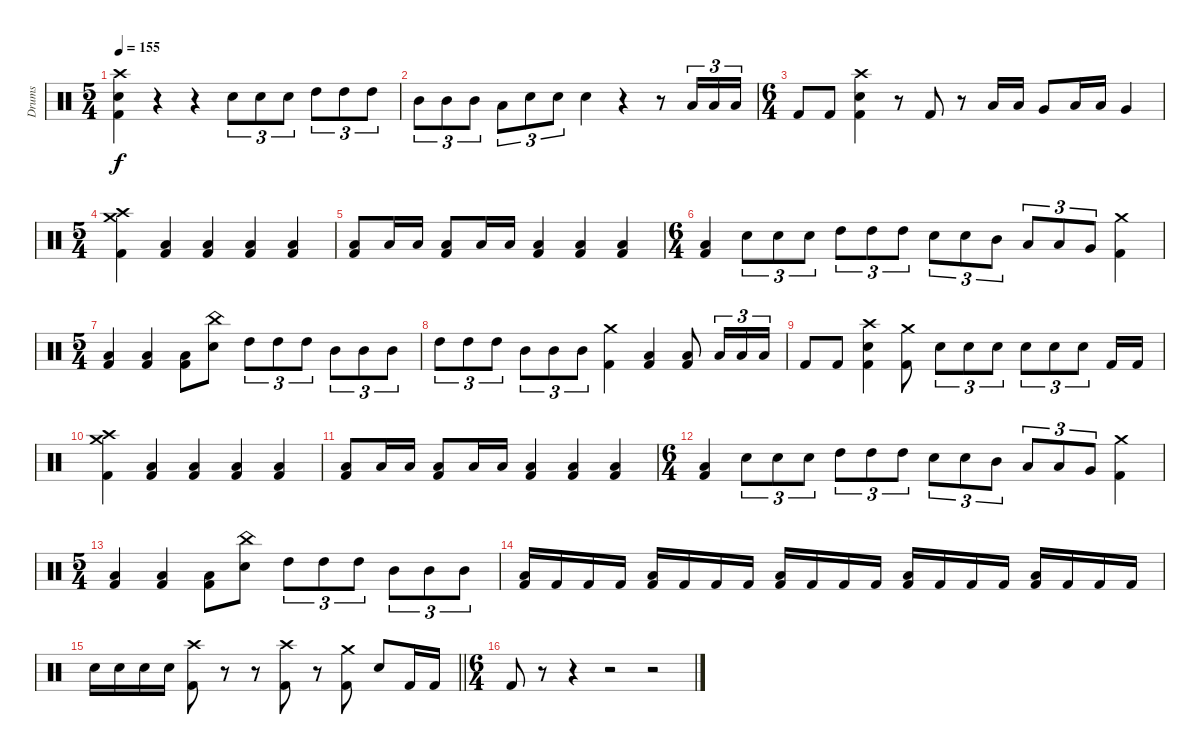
\track ("Drums" "Drums") {instrument percussion}
\staff {score}
\articulation defaults
\ts (5 4)
\tempo 155
\clef neutral
\ks c
("Crash high (hit)" "Electric Snare (hit)" "Kick (hit) 2").4{dy f} r.4 r.4 "Electric Snare (hit)".8{tu (3 2)} "Electric Snare (hit)".8{tu (3 2)} "Electric Snare (hit)".8{tu (3 2)} "High Tom (hit)".8{tu (3 2)} "High Tom (hit)".8{tu (3 2)} "High Tom (hit)".8{tu (3 2)} |
"Mid Tom (hit)".8{tu (3 2)} "Mid Tom (hit)".8{tu (3 2)} "Mid Tom (hit)".8{tu (3 2)} "Low Tom (hit)".8{tu (3 2)} "Electric Snare (hit)".8{tu (3 2)} "Electric Snare (hit)".8{tu (3 2)} "Electric Snare (hit)".4 r.4 r.8 "Low Tom (hit)".16{tu (3 2)} "Low Tom (hit)".16{tu (3 2)} "Low Tom (hit)".16{tu (3 2)} |
\ts (6 4)
"Kick (hit) 2".8 "Kick (hit) 2".8 ("Crash high (hit)" "Electric Snare (hit)" "Kick (hit) 2").4 r.8 "Kick (hit) 2".8 r.8 "Low Tom (hit)".16 "Low Tom (hit)".16 "Very Low Tom (hit)".8 "Low Tom (hit)".16 "Low Tom (hit)".16 "Very Low Tom (hit)".4 |
\ts (5 4)
("Crash high (hit)" "Crash medium (hit)" "Kick (hit) 2").4 ("Low Tom (hit)" "Kick (hit) 2").4 ("Low Tom (hit)" "Kick (hit) 2").4 ("Low Tom (hit)" "Kick (hit) 2").4 ("Low Tom (hit)" "Kick (hit) 2").4 |
("Low Tom (hit)" "Kick (hit) 2").8 "Low Tom (hit)".16 "Low Tom (hit)".16 ("Low Tom (hit)" "Kick (hit) 2").8 "Low Tom (hit)".16 "Low Tom (hit)".16 ("Low Tom (hit)" "Kick (hit) 2").4 ("Low Tom (hit)" "Kick (hit) 2").4 ("Low Tom (hit)" "Kick (hit) 2").4 |
\ts (6 4)
("Low Tom (hit)" "Kick (hit) 2").4 "Electric Snare (hit)".8{tu (3 2)} "Electric Snare (hit)".8{tu (3 2)} "Electric Snare (hit)".8{tu (3 2)} "High Tom (hit)".8{tu (3 2)} "High Tom (hit)".8{tu (3 2)} "High Tom (hit)".8{tu (3 2)} "Electric Snare (hit)".8{tu (3 2)} "Electric Snare (hit)".8{tu (3 2)} "Mid Tom (hit)".8{tu (3 2)} "Low Tom (hit)".8{tu (3 2)} "Low Tom (hit)".8{tu (3 2)} "Very Low Tom (hit)".8{tu (3 2)} ("Crash medium (hit)" "Kick (hit) 2").4 |
\ts (5 4)
("Low Tom (hit)" "Kick (hit) 2").4 ("Low Tom (hit)" "Kick (hit) 2").4 ("Low Tom (hit)" "Kick (hit) 2").8 ("China (hit)" "Electric Snare (hit)").8 "High Tom (hit)".8{tu (3 2)} "High Tom (hit)".8{tu (3 2)} "High Tom (hit)".8{tu (3 2)} "Mid Tom (hit)".8{tu (3 2)} "Mid Tom (hit)".8{tu (3 2)} "Mid Tom (hit)".8{tu (3 2)} |
"High Tom (hit)".8{tu (3 2)} "High Tom (hit)".8{tu (3 2)} "High Tom (hit)".8{tu (3 2)} "Mid Tom (hit)".8{tu (3 2)} "Mid Tom (hit)".8{tu (3 2)} "Mid Tom (hit)".8{tu (3 2)} ("Crash medium (hit)" "Kick (hit) 2").4 ("Low Tom (hit)" "Kick (hit) 2").4 ("Low Tom (hit)" "Kick (hit) 2").8 "Low Tom (hit)".16{tu (3 2)} "Low Tom (hit)".16{tu (3 2)} "Low Tom (hit)".16{tu (3 2)} |
"Kick (hit) 2".8 "Kick (hit) 2".8 ("Crash high (hit)" "Electric Snare (hit)" "Kick (hit) 2").4 ("Crash medium (hit)" "Kick (hit) 2").8 "Electric Snare (hit)".8{tu (3 2)} "Electric Snare (hit)".8{tu (3 2)} "Electric Snare (hit)".8{tu (3 2)} "Electric Snare (hit)".8{tu (3 2)} "Electric Snare (hit)".8{tu (3 2)} "Electric Snare (hit)".8{tu (3 2)} "Kick (hit) 2".16 "Kick (hit) 2".16 |
("Crash high (hit)" "Crash medium (hit)" "Kick (hit) 2").4 ("Low Tom (hit)" "Kick (hit) 2").4 ("Low Tom (hit)" "Kick (hit) 2").4 ("Low Tom (hit)" "Kick (hit) 2").4 ("Low Tom (hit)" "Kick (hit) 2").4 |
("Low Tom (hit)" "Kick (hit) 2").8 "Low Tom (hit)".16 "Low Tom (hit)".16 ("Low Tom (hit)" "Kick (hit) 2").8 "Low Tom (hit)".16 "Low Tom (hit)".16 ("Low Tom (hit)" "Kick (hit) 2").4 ("Low Tom (hit)" "Kick (hit) 2").4 ("Low Tom (hit)" "Kick (hit) 2").4 |
\ts (6 4)
("Low Tom (hit)" "Kick (hit) 2").4 "Electric Snare (hit)".8{tu (3 2)} "Electric Snare (hit)".8{tu (3 2)} "Electric Snare (hit)".8{tu (3 2)} "High Tom (hit)".8{tu (3 2)} "High Tom (hit)".8{tu (3 2)} "High Tom (hit)".8{tu (3 2)} "Electric Snare (hit)".8{tu (3 2)} "Electric Snare (hit)".8{tu (3 2)} "Mid Tom (hit)".8{tu (3 2)} "Low Tom (hit)".8{tu (3 2)} "Low Tom (hit)".8{tu (3 2)} "Very Low Tom (hit)".8{tu (3 2)} ("Crash medium (hit)" "Kick (hit) 2").4 |
\ts (5 4)
("Low Tom (hit)" "Kick (hit) 2").4 ("Low Tom (hit)" "Kick (hit) 2").4 ("Low Tom (hit)" "Kick (hit) 2").8 ("China (hit)" "Electric Snare (hit)").8 "High Tom (hit)".8{tu (3 2)} "High Tom (hit)".8{tu (3 2)} "High Tom (hit)".8{tu (3 2)} "Mid Tom (hit)".8{tu (3 2)} "Mid Tom (hit)".8{tu (3 2)} "Mid Tom (hit)".8{tu (3 2)} |
("Low Tom (hit)" "Kick (hit) 2").16 "Kick (hit) 2".16 "Kick (hit) 2".16 "Kick (hit) 2".16 ("Low Tom (hit)" "Kick (hit) 2").16 "Kick (hit) 2".16 "Kick (hit) 2".16 "Kick (hit) 2".16 ("Low Tom (hit)" "Kick (hit) 2").16 "Kick (hit) 2".16 "Kick (hit) 2".16 "Kick (hit) 2".16 ("Low Tom (hit)" "Kick (hit) 2").16 "Kick (hit) 2".16 "Kick (hit) 2".16 "Kick (hit) 2".16 ("Low Tom (hit)" "Kick (hit) 2").16 "Kick (hit) 2".16 "Kick (hit) 2".16 "Kick (hit) 2".16 |
\barLineRight lightlight "Electric Snare (hit)".16 "Electric Snare (hit)".16 "Electric Snare (hit)".16 "Electric Snare (hit)".16
("Crash high (hit)" "Kick (hit) 2").8 r.8 r.8 ("Crash high (hit)" "Kick (hit) 2").8 r.8 ("Crash medium (hit)" "Kick (hit) 2").8 "Electric Snare (hit)".8 "Kick (hit) 2".16 "Kick (hit) 2".16 |
\ts (6 4)
"Kick (hit) 2".8 r.8 r.4 r.2 r.2
